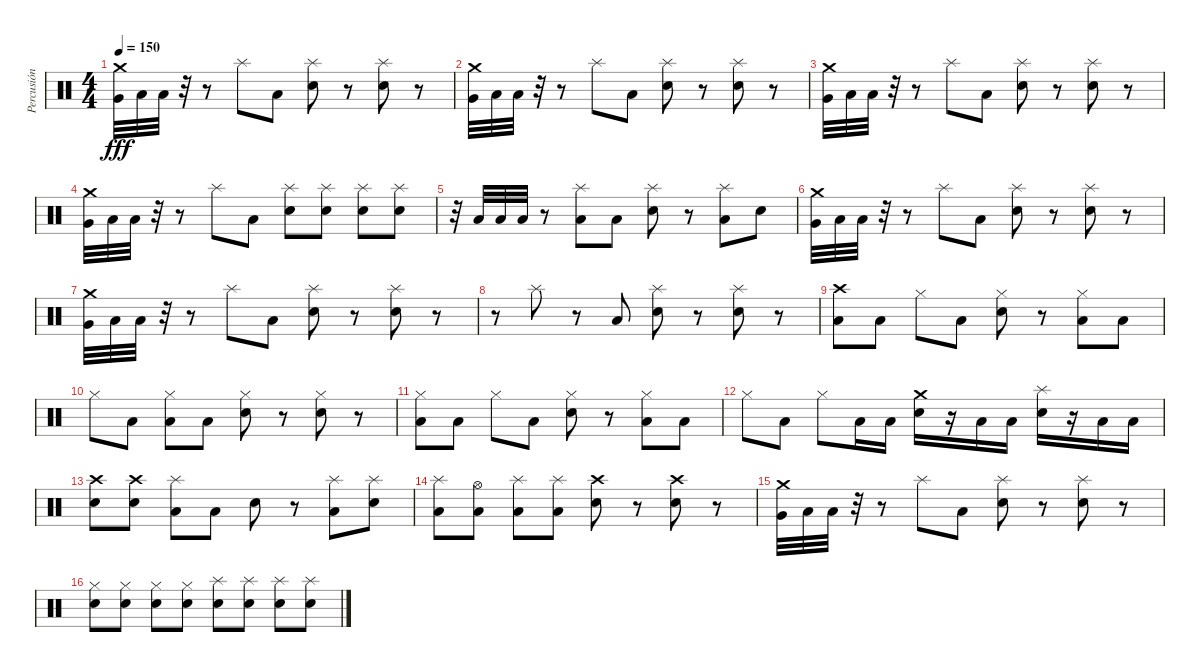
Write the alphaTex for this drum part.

\track ("Percusión" "Percusión") {instrument percussion}
\staff {score}
\articulation defaults
\ts (4 4)
\tempo 150
\clef neutral
\ks c
("Crash medium (hit)" "Very Low Tom (hit)").32{dy fff} "Low Floor Tom (hit)".32 "Low Tom (hit)".32 r.32 r.8 "Splash (hit)".8 "Low Tom (hit)".8 ("Splash (hit)" "Snare (hit) 2").8 r.8 ("Splash (hit)" "Snare (hit) 2").8 r.8 |
("Crash medium (hit)" "Very Low Tom (hit)").32 "Low Floor Tom (hit)".32 "Low Tom (hit)".32 r.32 r.8 "Splash (hit)".8 "Low Tom (hit)".8 ("Splash (hit)" "Snare (hit) 2").8 r.8 ("Splash (hit)" "Snare (hit) 2").8 r.8 |
("Crash medium (hit)" "Very Low Tom (hit)").32 "Low Floor Tom (hit)".32 "Low Tom (hit)".32 r.32 r.8 "Splash (hit)".8 "Low Tom (hit)".8 ("Splash (hit)" "Snare (hit) 2").8 r.8 ("Splash (hit)" "Snare (hit) 2").8 r.8 |
("Crash medium (hit)" "Very Low Tom (hit)").32 "Low Floor Tom (hit)".32 "Low Tom (hit)".32 r.32 r.8 "Splash (hit)".8 "Low Tom (hit)".8 ("Splash (hit)" "Snare (hit) 2").8 ("Splash (hit)" "Snare (hit) 2").8 ("Splash (hit)" "Snare (hit) 2").8 ("Splash (hit)" "Snare (hit) 2").8 |
r.32 "Low Floor Tom (hit)".32 "Low Tom (hit)".32 "Low Tom (hit)".32 r.8 ("Splash (hit)" "Low Tom (hit)").8 "Low Tom (hit)".8 ("Splash (hit)" "Snare (hit) 2").8 r.8 ("Splash (hit)" "Low Tom (hit)").8 "Snare (hit) 2".8 |
("Crash medium (hit)" "Very Low Tom (hit)").32 "Low Floor Tom (hit)".32 "Low Tom (hit)".32 r.32 r.8 "Splash (hit)".8 "Low Tom (hit)".8 ("Splash (hit)" "Snare (hit) 2").8 r.8 ("Splash (hit)" "Snare (hit) 2").8 r.8 |
("Crash medium (hit)" "Very Low Tom (hit)").32 "Low Floor Tom (hit)".32 "Low Tom (hit)".32 r.32 r.8 "Splash (hit)".8 "Low Tom (hit)".8 ("Splash (hit)" "Snare (hit) 2").8 r.8 ("Splash (hit)" "Snare (hit) 2").8 r.8 |
r.8 "Splash (hit)".8 r.8 "Low Tom (hit)".8 ("Splash (hit)" "Snare (hit) 2").8 r.8 ("Splash (hit)" "Snare (hit) 2").8 r.8 |
("Crash high (hit)" "Low Tom (hit)").8 "Low Tom (hit)".8 "Hi-Hat (closed)".8 "Low Tom (hit)".8 ("Hi-Hat (closed)" "Snare (hit) 2").8 r.8 ("Hi-Hat (closed)" "Low Tom (hit)").8 "Low Tom (hit)".8 |
"Hi-Hat (closed)".8 "Low Tom (hit)".8 ("Hi-Hat (closed)" "Low Tom (hit)").8 "Low Tom (hit)".8 ("Hi-Hat (closed)" "Snare (hit) 2").8 r.8 ("Hi-Hat (closed)" "Snare (hit) 2").8 r.8 |
("Hi-Hat (closed)" "Low Tom (hit)").8 "Low Tom (hit)".8 "Hi-Hat (closed)".8 "Low Tom (hit)".8 ("Hi-Hat (closed)" "Snare (hit) 2").8 r.8 ("Hi-Hat (closed)" "Low Tom (hit)").8 "Low Tom (hit)".8 |
"Hi-Hat (closed)".8 "Low Tom (hit)".8 "Hi-Hat (closed)".8 "Low Tom (hit)".16 "Low Tom (hit)".16 ("Crash medium (hit)" "Snare (hit) 2").16 r.16 "Low Tom (hit)".16 "Low Tom (hit)".16 ("Splash (hit)" "Snare (hit) 2").16 r.16 "Low Tom (hit)".16 "Low Tom (hit)".16 |
("Crash high (hit)" "Snare (hit) 2").8 ("Crash high (hit)" "Snare (hit) 2").8 ("Splash (hit)" "Low Tom (hit)").8 "Low Tom (hit)".8 "Snare (hit) 2".8 r.8 ("Splash (hit)" "Low Tom (hit)").8 ("Splash (hit)" "Snare (hit) 2").8 |
("Splash (hit)" "Low Tom (hit)").8 ("Hi-Hat (open)" "Low Tom (hit)").8 ("Splash (hit)" "Low Floor Tom (hit)").8 ("Splash (hit)" "Low Floor Tom (hit)").8 ("Crash high (hit)" "Snare (hit) 2").8 r.8 ("Crash high (hit)" "Snare (hit) 2").8 r.8 |
("Crash medium (hit)" "Very Low Tom (hit)").32 "Low Floor Tom (hit)".32 "Low Tom (hit)".32 r.32 r.8 "Splash (hit)".8 "Low Tom (hit)".8 ("Splash (hit)" "Snare (hit) 2").8 r.8 ("Splash (hit)" "Snare (hit) 2").8 r.8 |
("Hi-Hat (closed)" "Snare (hit) 2").8 ("Hi-Hat (closed)" "Snare (hit) 2").8 ("Hi-Hat (closed)" "Snare (hit) 2").8 ("Hi-Hat (closed)" "Snare (hit) 2").8 ("Splash (hit)" "Snare (hit) 2").8 ("Splash (hit)" "Snare (hit) 2").8 ("Splash (hit)" "Snare (hit) 2").8 ("Splash (hit)" "Snare (hit) 2").8
